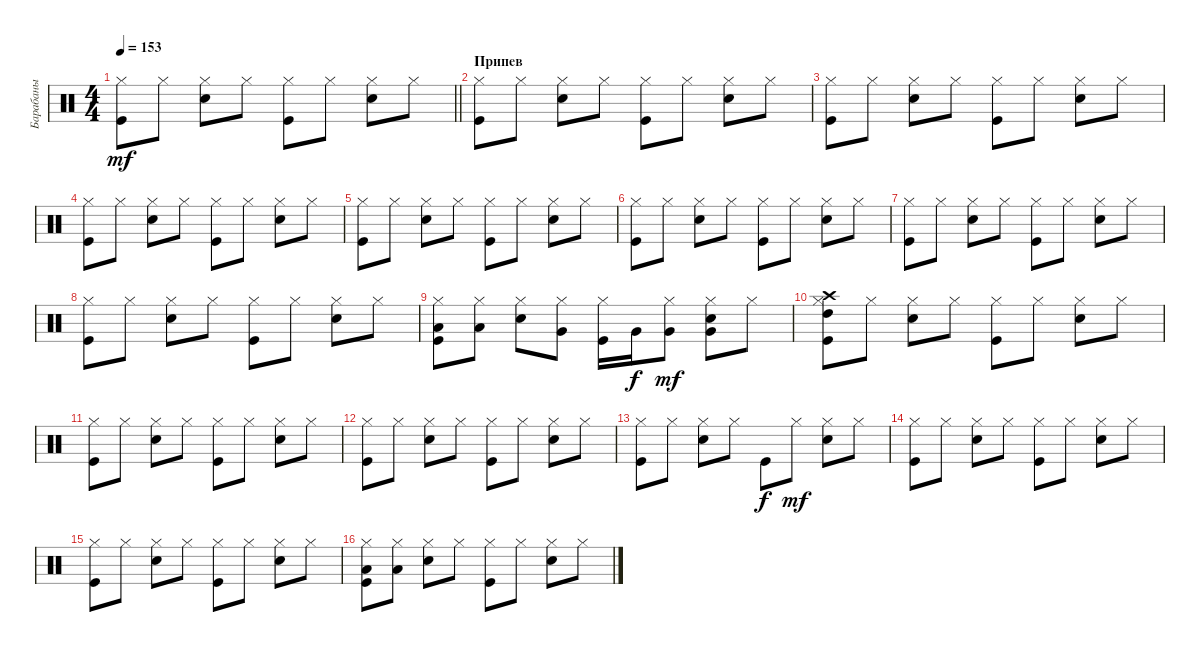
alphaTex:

\track ("Барабаны" "Барабаны") {instrument percussion}
\staff {score}
\articulation defaults
\ts (4 4)
\tempo 153
\clef neutral
\barLineRight lightlight
\ks c
("Kick (hit)" "Hi-Hat (closed)").8{dy mf} "Hi-Hat (closed)".8 ("Snare (hit) 2" "Hi-Hat (closed)").8 "Hi-Hat (closed)".8 ("Kick (hit)" "Hi-Hat (closed)").8 "Hi-Hat (closed)".8 ("Snare (hit) 2" "Hi-Hat (closed)").8 "Hi-Hat (closed)".8 |
\section ("" "Припев")
("Kick (hit)" "Hi-Hat (closed)").8 "Hi-Hat (closed)".8 ("Snare (hit) 2" "Hi-Hat (closed)").8 "Hi-Hat (closed)".8 ("Kick (hit)" "Hi-Hat (closed)").8 "Hi-Hat (closed)".8 ("Snare (hit) 2" "Hi-Hat (closed)").8 "Hi-Hat (closed)".8 |
("Kick (hit)" "Hi-Hat (closed)").8 "Hi-Hat (closed)".8 ("Snare (hit) 2" "Hi-Hat (closed)").8 "Hi-Hat (closed)".8 ("Kick (hit)" "Hi-Hat (closed)").8 "Hi-Hat (closed)".8 ("Snare (hit) 2" "Hi-Hat (closed)").8 "Hi-Hat (closed)".8 |
("Kick (hit)" "Hi-Hat (closed)").8 "Hi-Hat (closed)".8 ("Snare (hit) 2" "Hi-Hat (closed)").8 "Hi-Hat (closed)".8 ("Kick (hit)" "Hi-Hat (closed)").8 "Hi-Hat (closed)".8 ("Snare (hit) 2" "Hi-Hat (closed)").8 "Hi-Hat (closed)".8 |
("Kick (hit)" "Hi-Hat (closed)").8 "Hi-Hat (closed)".8 ("Snare (hit) 2" "Hi-Hat (closed)").8 "Hi-Hat (closed)".8 ("Kick (hit)" "Hi-Hat (closed)").8 "Hi-Hat (closed)".8 ("Snare (hit) 2" "Hi-Hat (closed)").8 "Hi-Hat (closed)".8 |
("Kick (hit)" "Hi-Hat (closed)").8 "Hi-Hat (closed)".8 ("Snare (hit) 2" "Hi-Hat (closed)").8 "Hi-Hat (closed)".8 ("Kick (hit)" "Hi-Hat (closed)").8 "Hi-Hat (closed)".8 ("Snare (hit) 2" "Hi-Hat (closed)").8 "Hi-Hat (closed)".8 |
("Kick (hit)" "Hi-Hat (closed)").8 "Hi-Hat (closed)".8 ("Snare (hit) 2" "Hi-Hat (closed)").8 "Hi-Hat (closed)".8 ("Kick (hit)" "Hi-Hat (closed)").8 "Hi-Hat (closed)".8 ("Snare (hit) 2" "Hi-Hat (closed)").8 "Hi-Hat (closed)".8 |
("Kick (hit)" "Hi-Hat (closed)").8 "Hi-Hat (closed)".8 ("Snare (hit) 2" "Hi-Hat (closed)").8 "Hi-Hat (closed)".8 ("Kick (hit)" "Hi-Hat (closed)").8 "Hi-Hat (closed)".8 ("Snare (hit) 2" "Hi-Hat (closed)").8 "Hi-Hat (closed)".8 |
("Kick (hit)" "Hi-Hat (closed)" "Low Tom (hit)").8 ("Hi-Hat (closed)" "Low Tom (hit)").8 ("Snare (hit) 2" "Hi-Hat (closed)").8 ("Hi-Hat (closed)" "Very Low Tom (hit)").8 ("Kick (hit)" "Hi-Hat (closed)").16 "Very Low Tom (hit)".16{dy f} ("Hi-Hat (closed)" "Very Low Tom (hit)").8{dy mf} ("Snare (hit) 2" "Hi-Hat (closed)" "Very Low Tom (hit)").8 "Hi-Hat (closed)".8 |
("Kick (hit)" "Hi-Hat (closed)" "High Tom (hit)" "Crash high (hit)").8 "Hi-Hat (closed)".8 ("Snare (hit) 2" "Hi-Hat (closed)").8 "Hi-Hat (closed)".8 ("Kick (hit)" "Hi-Hat (closed)").8 "Hi-Hat (closed)".8 ("Snare (hit) 2" "Hi-Hat (closed)").8 "Hi-Hat (closed)".8 |
("Kick (hit)" "Hi-Hat (closed)").8 "Hi-Hat (closed)".8 ("Snare (hit) 2" "Hi-Hat (closed)").8 "Hi-Hat (closed)".8 ("Kick (hit)" "Hi-Hat (closed)").8 "Hi-Hat (closed)".8 ("Snare (hit) 2" "Hi-Hat (closed)").8 "Hi-Hat (closed)".8 |
("Kick (hit)" "Hi-Hat (closed)").8 "Hi-Hat (closed)".8 ("Snare (hit) 2" "Hi-Hat (closed)").8 "Hi-Hat (closed)".8 ("Kick (hit)" "Hi-Hat (closed)").8 "Hi-Hat (closed)".8 ("Snare (hit) 2" "Hi-Hat (closed)").8 "Hi-Hat (closed)".8 |
("Kick (hit)" "Hi-Hat (closed)").8 "Hi-Hat (closed)".8 ("Snare (hit) 2" "Hi-Hat (closed)").8 "Hi-Hat (closed)".8 "Kick (hit)".8{dy f} "Hi-Hat (closed)".8{dy mf} ("Snare (hit) 2" "Hi-Hat (closed)").8 "Hi-Hat (closed)".8 |
("Kick (hit)" "Hi-Hat (closed)").8 "Hi-Hat (closed)".8 ("Snare (hit) 2" "Hi-Hat (closed)").8 "Hi-Hat (closed)".8 ("Kick (hit)" "Hi-Hat (closed)").8 "Hi-Hat (closed)".8 ("Snare (hit) 2" "Hi-Hat (closed)").8 "Hi-Hat (closed)".8 |
("Kick (hit)" "Hi-Hat (closed)").8 "Hi-Hat (closed)".8 ("Snare (hit) 2" "Hi-Hat (closed)").8 "Hi-Hat (closed)".8 ("Kick (hit)" "Hi-Hat (closed)").8 "Hi-Hat (closed)".8 ("Snare (hit) 2" "Hi-Hat (closed)").8 "Hi-Hat (closed)".8 |
("Kick (hit)" "Hi-Hat (closed)" "Low Tom (hit)").8 ("Hi-Hat (closed)" "Low Tom (hit)").8 ("Snare (hit) 2" "Hi-Hat (closed)").8 "Hi-Hat (closed)".8 ("Kick (hit)" "Hi-Hat (closed)").8 "Hi-Hat (closed)".8 ("Snare (hit) 2" "Hi-Hat (closed)").8 "Hi-Hat (closed)".8
